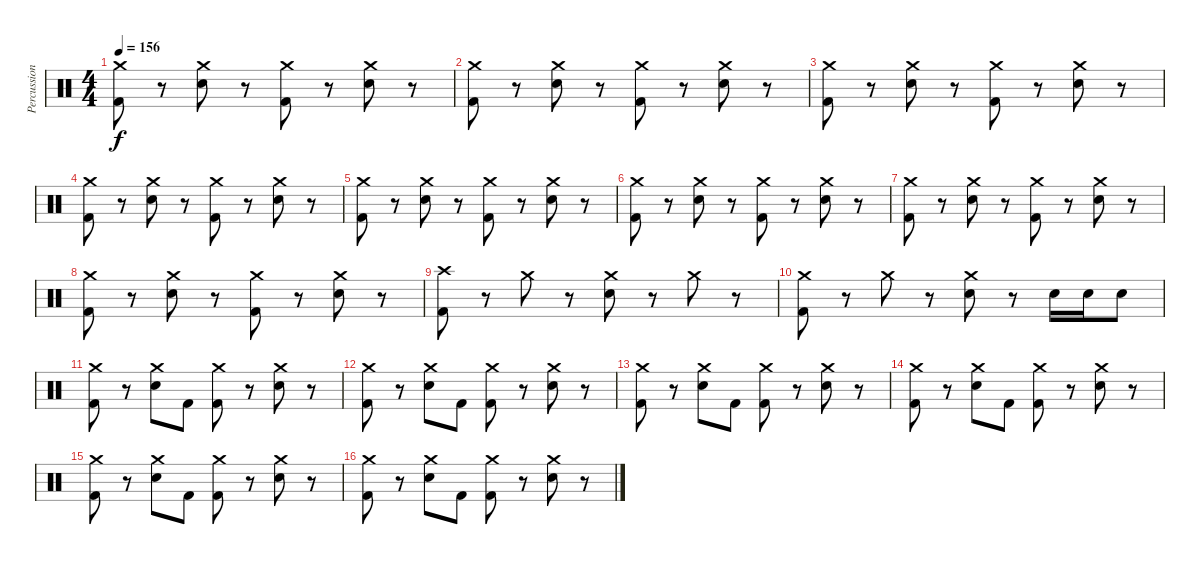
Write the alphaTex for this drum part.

\track ("Percussions" "Percussion") {instrument percussion}
\staff {score}
\articulation defaults
\ts (4 4)
\tempo 156
\clef neutral
\ks c
("Crash medium (hit)" "Kick (hit) 2").8{dy f} r.8 ("Crash medium (hit)" "Electric Snare (hit)").8 r.8 ("Crash medium (hit)" "Kick (hit) 2").8 r.8 ("Crash medium (hit)" "Electric Snare (hit)").8 r.8 |
("Crash medium (hit)" "Kick (hit) 2").8 r.8 ("Crash medium (hit)" "Electric Snare (hit)").8 r.8 ("Crash medium (hit)" "Kick (hit) 2").8 r.8 ("Crash medium (hit)" "Electric Snare (hit)").8 r.8 |
("Crash medium (hit)" "Kick (hit) 2").8 r.8 ("Crash medium (hit)" "Electric Snare (hit)").8 r.8 ("Crash medium (hit)" "Kick (hit) 2").8 r.8 ("Crash medium (hit)" "Electric Snare (hit)").8 r.8 |
("Crash medium (hit)" "Kick (hit) 2").8 r.8 ("Crash medium (hit)" "Electric Snare (hit)").8 r.8 ("Crash medium (hit)" "Kick (hit) 2").8 r.8 ("Crash medium (hit)" "Electric Snare (hit)").8 r.8 |
("Crash medium (hit)" "Kick (hit) 2").8 r.8 ("Crash medium (hit)" "Electric Snare (hit)").8 r.8 ("Crash medium (hit)" "Kick (hit) 2").8 r.8 ("Crash medium (hit)" "Electric Snare (hit)").8 r.8 |
("Crash medium (hit)" "Kick (hit) 2").8 r.8 ("Crash medium (hit)" "Electric Snare (hit)").8 r.8 ("Crash medium (hit)" "Kick (hit) 2").8 r.8 ("Crash medium (hit)" "Electric Snare (hit)").8 r.8 |
("Crash medium (hit)" "Kick (hit) 2").8 r.8 ("Crash medium (hit)" "Electric Snare (hit)").8 r.8 ("Crash medium (hit)" "Kick (hit) 2").8 r.8 ("Crash medium (hit)" "Electric Snare (hit)").8 r.8 |
("Crash medium (hit)" "Kick (hit) 2").8 r.8 ("Crash medium (hit)" "Electric Snare (hit)").8 r.8 ("Crash medium (hit)" "Kick (hit) 2").8 r.8 ("Crash medium (hit)" "Electric Snare (hit)").8 r.8 |
("Crash high (hit)" "Kick (hit) 2").8 r.8 "Crash medium (hit)".8 r.8 ("Crash medium (hit)" "Electric Snare (hit)").8 r.8 "Crash medium (hit)".8 r.8 |
("Crash medium (hit)" "Kick (hit) 2").8 r.8 "Crash medium (hit)".8 r.8 ("Crash medium (hit)" "Electric Snare (hit)").8 r.8 "Electric Snare (hit)".16 "Electric Snare (hit)".16 "Electric Snare (hit)".8 |
("Crash medium (hit)" "Kick (hit) 2").8 r.8 ("Crash medium (hit)" "Electric Snare (hit)").8 "Kick (hit) 2".8 ("Crash medium (hit)" "Kick (hit) 2").8 r.8 ("Crash medium (hit)" "Electric Snare (hit)").8 r.8 |
("Crash medium (hit)" "Kick (hit) 2").8 r.8 ("Crash medium (hit)" "Electric Snare (hit)").8 "Kick (hit) 2".8 ("Crash medium (hit)" "Kick (hit) 2").8 r.8 ("Crash medium (hit)" "Electric Snare (hit)").8 r.8 |
("Crash medium (hit)" "Kick (hit) 2").8 r.8 ("Crash medium (hit)" "Electric Snare (hit)").8 "Kick (hit) 2".8 ("Crash medium (hit)" "Kick (hit) 2").8 r.8 ("Crash medium (hit)" "Electric Snare (hit)").8 r.8 |
("Crash medium (hit)" "Kick (hit) 2").8 r.8 ("Crash medium (hit)" "Electric Snare (hit)").8 "Kick (hit) 2".8 ("Crash medium (hit)" "Kick (hit) 2").8 r.8 ("Crash medium (hit)" "Electric Snare (hit)").8 r.8 |
("Crash medium (hit)" "Kick (hit) 2").8 r.8 ("Crash medium (hit)" "Electric Snare (hit)").8 "Kick (hit) 2".8 ("Crash medium (hit)" "Kick (hit) 2").8 r.8 ("Crash medium (hit)" "Electric Snare (hit)").8 r.8 |
("Crash medium (hit)" "Kick (hit) 2").8 r.8 ("Crash medium (hit)" "Electric Snare (hit)").8 "Kick (hit) 2".8 ("Crash medium (hit)" "Kick (hit) 2").8 r.8 ("Crash medium (hit)" "Electric Snare (hit)").8 r.8
